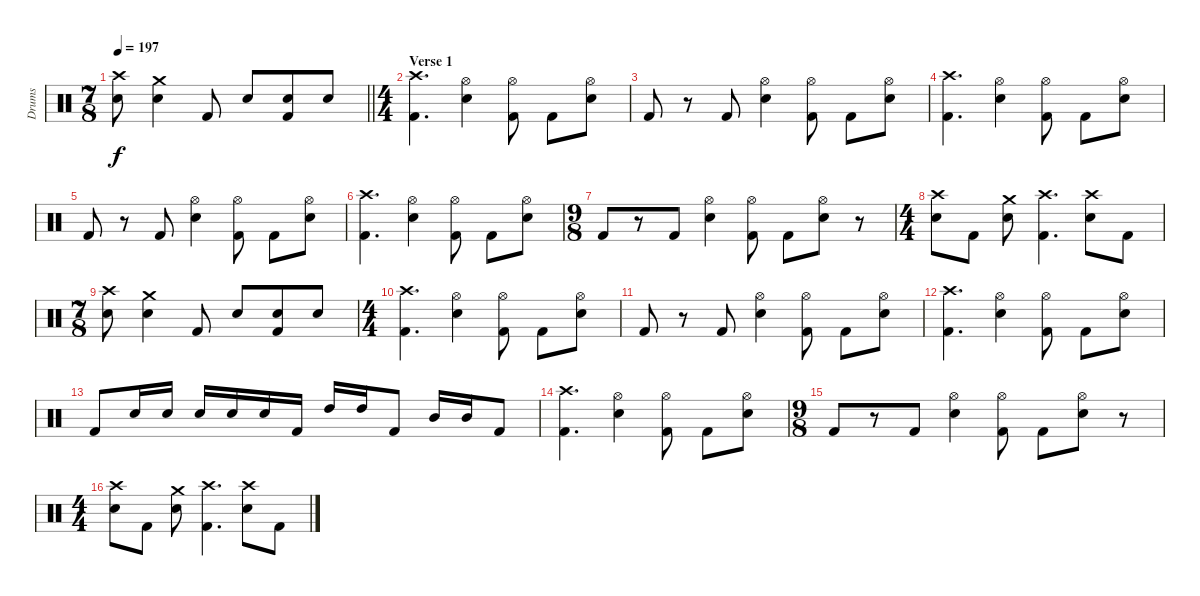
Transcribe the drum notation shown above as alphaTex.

\track ("Drums" "Drums") {instrument percussion}
\staff {score}
\articulation defaults
\ts (7 8)
\tempo 197
\clef neutral
\barLineRight lightlight
\ks c
("Crash high (hit)" "Electric Snare (hit)").8{dy f} ("Crash medium (hit)" "Electric Snare (hit)").4 "Kick (hit) 2".8 "Electric Snare (hit)".8 ("Electric Snare (hit)" "Kick (hit) 2").8 "Electric Snare (hit)".8 |
\ts (4 4)
\section ("" "Verse 1")
("Crash high (hit)" "Kick (hit) 2").4{d} ("Hi-Hat (open)" "Electric Snare (hit)").4 ("Hi-Hat (open)" "Kick (hit) 2").8 "Kick (hit) 2".8 ("Hi-Hat (open)" "Electric Snare (hit)").8 |
"Kick (hit) 2".8 r.8 "Kick (hit) 2".8 ("Hi-Hat (open)" "Electric Snare (hit)").4 ("Hi-Hat (open)" "Kick (hit) 2").8 "Kick (hit) 2".8 ("Hi-Hat (open)" "Electric Snare (hit)").8 |
("Crash high (hit)" "Kick (hit) 2").4{d} ("Hi-Hat (open)" "Electric Snare (hit)").4 ("Hi-Hat (open)" "Kick (hit) 2").8 "Kick (hit) 2".8 ("Hi-Hat (open)" "Electric Snare (hit)").8 |
"Kick (hit) 2".8 r.8 "Kick (hit) 2".8 ("Hi-Hat (open)" "Electric Snare (hit)").4 ("Hi-Hat (open)" "Kick (hit) 2").8 "Kick (hit) 2".8 ("Hi-Hat (open)" "Electric Snare (hit)").8 |
("Crash high (hit)" "Kick (hit) 2").4{d} ("Hi-Hat (open)" "Electric Snare (hit)").4 ("Hi-Hat (open)" "Kick (hit) 2").8 "Kick (hit) 2".8 ("Hi-Hat (open)" "Electric Snare (hit)").8 |
\ts (9 8)
"Kick (hit) 2".8 r.8 "Kick (hit) 2".8 ("Hi-Hat (open)" "Electric Snare (hit)").4 ("Hi-Hat (open)" "Kick (hit) 2").8 "Kick (hit) 2".8 ("Hi-Hat (open)" "Electric Snare (hit)").8 r.8 |
\ts (4 4)
("Crash high (hit)" "Electric Snare (hit)").8 "Kick (hit) 2".8 ("Crash medium (hit)" "Electric Snare (hit)").8 ("Crash high (hit)" "Kick (hit) 2").4{d} ("Crash high (hit)" "Electric Snare (hit)").8 "Kick (hit) 2".8 |
\ts (7 8)
("Crash high (hit)" "Electric Snare (hit)").8 ("Crash medium (hit)" "Electric Snare (hit)").4 "Kick (hit) 2".8 "Electric Snare (hit)".8 ("Electric Snare (hit)" "Kick (hit) 2").8 "Electric Snare (hit)".8 |
\ts (4 4)
("Crash high (hit)" "Kick (hit) 2").4{d} ("Hi-Hat (open)" "Electric Snare (hit)").4 ("Hi-Hat (open)" "Kick (hit) 2").8 "Kick (hit) 2".8 ("Hi-Hat (open)" "Electric Snare (hit)").8 |
"Kick (hit) 2".8 r.8 "Kick (hit) 2".8 ("Hi-Hat (open)" "Electric Snare (hit)").4 ("Hi-Hat (open)" "Kick (hit) 2").8 "Kick (hit) 2".8 ("Hi-Hat (open)" "Electric Snare (hit)").8 |
("Crash high (hit)" "Kick (hit) 2").4{d} ("Hi-Hat (open)" "Electric Snare (hit)").4 ("Hi-Hat (open)" "Kick (hit) 2").8 "Kick (hit) 2".8 ("Hi-Hat (open)" "Electric Snare (hit)").8 |
"Kick (hit) 2".8 "Electric Snare (hit)".16 "Electric Snare (hit)".16 "Electric Snare (hit)".16 "Electric Snare (hit)".16 "Electric Snare (hit)".16 "Kick (hit) 2".16 "High Tom (hit)".16 "High Tom (hit)".16 "Kick (hit) 2".8 "Mid Tom (hit)".16 "Mid Tom (hit)".16 "Kick (hit) 2".8 |
("Crash high (hit)" "Kick (hit) 2").4{d} ("Hi-Hat (open)" "Electric Snare (hit)").4 ("Hi-Hat (open)" "Kick (hit) 2").8 "Kick (hit) 2".8 ("Hi-Hat (open)" "Electric Snare (hit)").8 |
\ts (9 8)
"Kick (hit) 2".8 r.8 "Kick (hit) 2".8 ("Hi-Hat (open)" "Electric Snare (hit)").4 ("Hi-Hat (open)" "Kick (hit) 2").8 "Kick (hit) 2".8 ("Hi-Hat (open)" "Electric Snare (hit)").8 r.8 |
\ts (4 4)
("Crash high (hit)" "Electric Snare (hit)").8 "Kick (hit) 2".8 ("Crash medium (hit)" "Electric Snare (hit)").8 ("Crash high (hit)" "Kick (hit) 2").4{d} ("Crash high (hit)" "Electric Snare (hit)").8 "Kick (hit) 2".8
